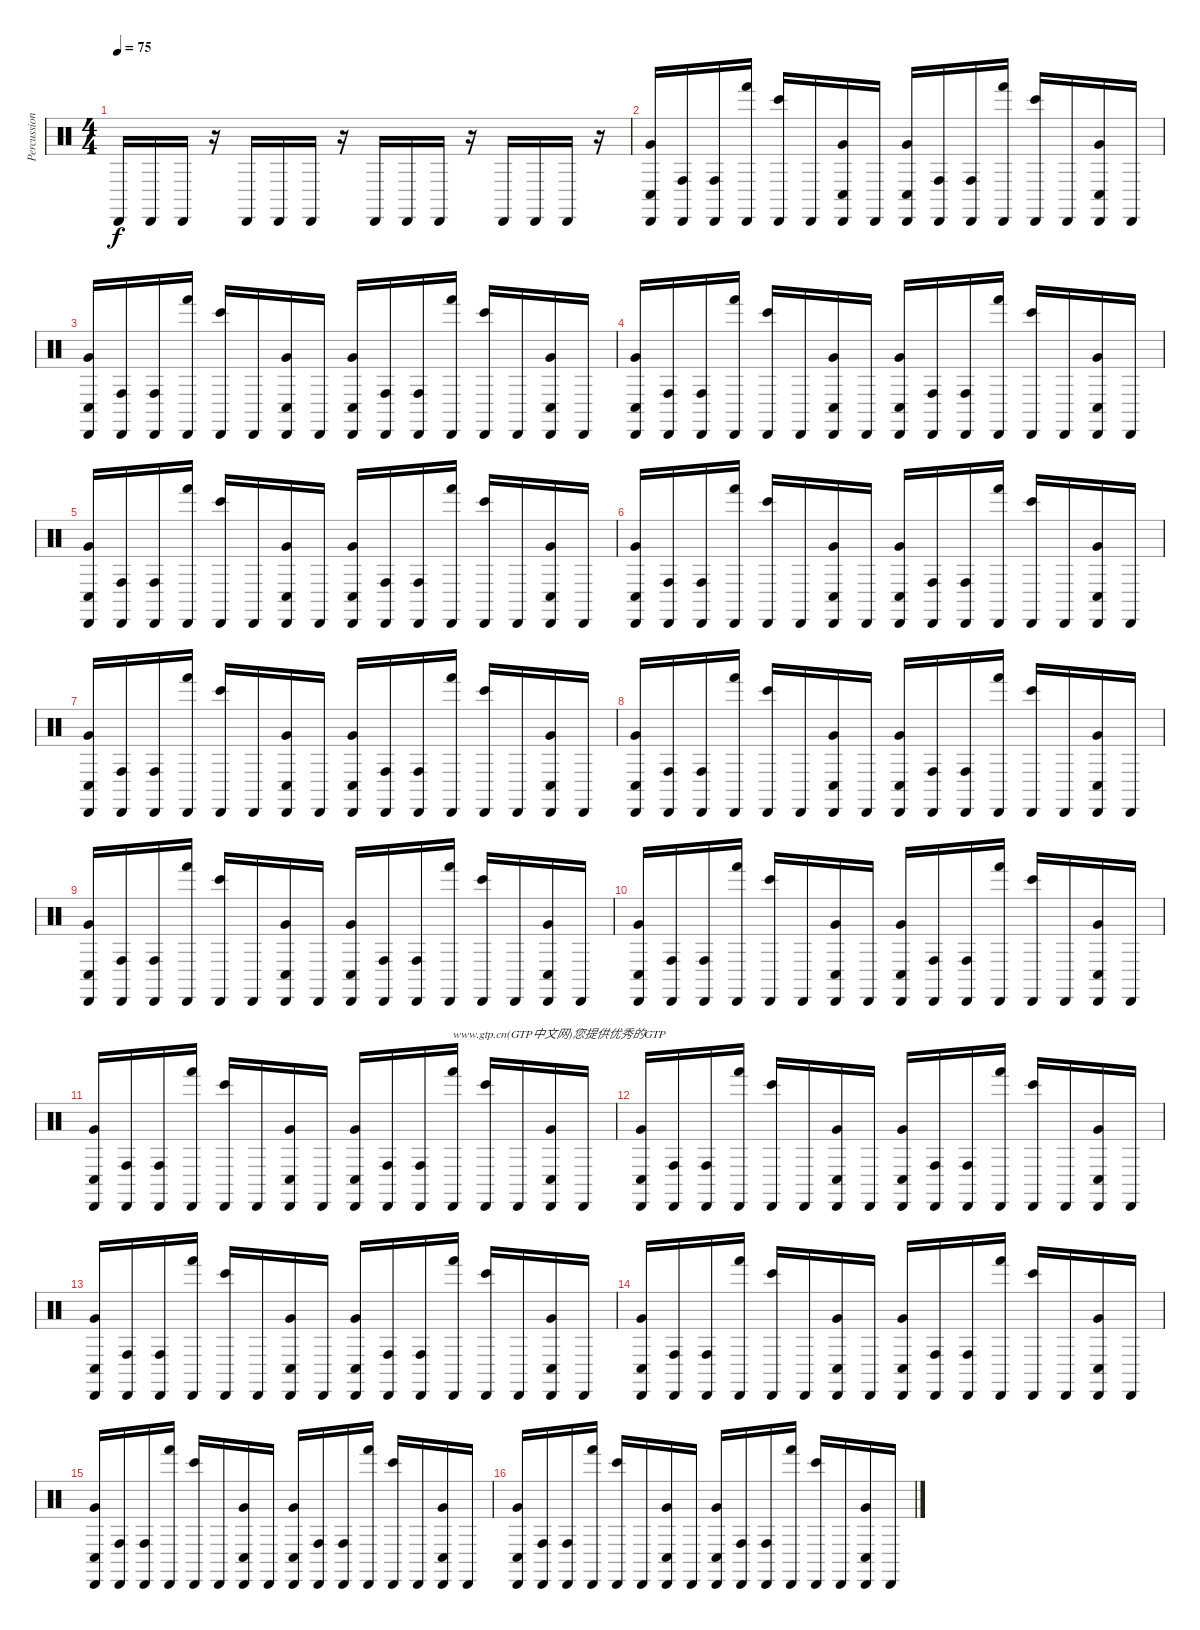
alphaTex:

\track ("Percussions" "Percussion") {instrument percussion}
\staff {score}
\articulation defaults
\ts (4 4)
\tempo 75
\clef neutral
\ks c "Cabasa (hit)".16{dy f} "Cabasa (hit)".16 "Cabasa (hit)".16
r.16 "Cabasa (hit)".16 "Cabasa (hit)".16 "Cabasa (hit)".16 r.16 "Cabasa (hit)".16 "Cabasa (hit)".16 "Cabasa (hit)".16 r.16 "Cabasa (hit)".16 "Cabasa (hit)".16 "Cabasa (hit)".16 r.16 |
("Conga low (hit)" "Very Low Tom (hit)" "Cabasa (hit)").16 ("Conga high (hit)" "Cabasa (hit)").16 ("Conga high (hit)" "Cabasa (hit)").16 ("Hand (hit)" "Cabasa (hit)").16 ("Bongo High (hit)" "Cabasa (hit)").16 "Cabasa (hit)".16 ("Conga low (hit)" "Very Low Tom (hit)" "Cabasa (hit)").16 "Cabasa (hit)".16 ("Conga low (hit)" "Very Low Tom (hit)" "Cabasa (hit)").16 ("Conga high (hit)" "Cabasa (hit)").16 ("Conga high (hit)" "Cabasa (hit)").16 ("Hand (hit)" "Cabasa (hit)").16 ("Bongo High (hit)" "Cabasa (hit)").16 "Cabasa (hit)".16 ("Conga low (hit)" "Very Low Tom (hit)" "Cabasa (hit)").16 "Cabasa (hit)".16 |
("Conga low (hit)" "Very Low Tom (hit)" "Cabasa (hit)").16 ("Conga high (hit)" "Cabasa (hit)").16 ("Conga high (hit)" "Cabasa (hit)").16 ("Hand (hit)" "Cabasa (hit)").16 ("Bongo High (hit)" "Cabasa (hit)").16 "Cabasa (hit)".16 ("Conga low (hit)" "Very Low Tom (hit)" "Cabasa (hit)").16 "Cabasa (hit)".16 ("Conga low (hit)" "Very Low Tom (hit)" "Cabasa (hit)").16 ("Conga high (hit)" "Cabasa (hit)").16 ("Conga high (hit)" "Cabasa (hit)").16 ("Hand (hit)" "Cabasa (hit)").16 ("Bongo High (hit)" "Cabasa (hit)").16 "Cabasa (hit)".16 ("Conga low (hit)" "Very Low Tom (hit)" "Cabasa (hit)").16 "Cabasa (hit)".16 |
("Conga low (hit)" "Very Low Tom (hit)" "Cabasa (hit)").16 ("Conga high (hit)" "Cabasa (hit)").16 ("Conga high (hit)" "Cabasa (hit)").16 ("Hand (hit)" "Cabasa (hit)").16 ("Bongo High (hit)" "Cabasa (hit)").16 "Cabasa (hit)".16 ("Conga low (hit)" "Very Low Tom (hit)" "Cabasa (hit)").16 "Cabasa (hit)".16 ("Conga low (hit)" "Very Low Tom (hit)" "Cabasa (hit)").16 ("Conga high (hit)" "Cabasa (hit)").16 ("Conga high (hit)" "Cabasa (hit)").16 ("Hand (hit)" "Cabasa (hit)").16 ("Bongo High (hit)" "Cabasa (hit)").16 "Cabasa (hit)".16 ("Conga low (hit)" "Very Low Tom (hit)" "Cabasa (hit)").16 "Cabasa (hit)".16 |
("Conga low (hit)" "Very Low Tom (hit)" "Cabasa (hit)").16 ("Conga high (hit)" "Cabasa (hit)").16 ("Conga high (hit)" "Cabasa (hit)").16 ("Hand (hit)" "Cabasa (hit)").16 ("Bongo High (hit)" "Cabasa (hit)").16 "Cabasa (hit)".16 ("Conga low (hit)" "Very Low Tom (hit)" "Cabasa (hit)").16 "Cabasa (hit)".16 ("Conga low (hit)" "Very Low Tom (hit)" "Cabasa (hit)").16 ("Conga high (hit)" "Cabasa (hit)").16 ("Conga high (hit)" "Cabasa (hit)").16 ("Hand (hit)" "Cabasa (hit)").16 ("Bongo High (hit)" "Cabasa (hit)").16 "Cabasa (hit)".16 ("Conga low (hit)" "Very Low Tom (hit)" "Cabasa (hit)").16 "Cabasa (hit)".16 |
("Conga low (hit)" "Very Low Tom (hit)" "Cabasa (hit)").16 ("Conga high (hit)" "Cabasa (hit)").16 ("Conga high (hit)" "Cabasa (hit)").16 ("Hand (hit)" "Cabasa (hit)").16 ("Bongo High (hit)" "Cabasa (hit)").16 "Cabasa (hit)".16 ("Conga low (hit)" "Very Low Tom (hit)" "Cabasa (hit)").16 "Cabasa (hit)".16 ("Conga low (hit)" "Very Low Tom (hit)" "Cabasa (hit)").16 ("Conga high (hit)" "Cabasa (hit)").16 ("Conga high (hit)" "Cabasa (hit)").16 ("Hand (hit)" "Cabasa (hit)").16 ("Bongo High (hit)" "Cabasa (hit)").16 "Cabasa (hit)".16 ("Conga low (hit)" "Very Low Tom (hit)" "Cabasa (hit)").16 "Cabasa (hit)".16 |
("Conga low (hit)" "Very Low Tom (hit)" "Cabasa (hit)").16 ("Conga high (hit)" "Cabasa (hit)").16 ("Conga high (hit)" "Cabasa (hit)").16 ("Hand (hit)" "Cabasa (hit)").16 ("Bongo High (hit)" "Cabasa (hit)").16 "Cabasa (hit)".16 ("Conga low (hit)" "Very Low Tom (hit)" "Cabasa (hit)").16 "Cabasa (hit)".16 ("Conga low (hit)" "Very Low Tom (hit)" "Cabasa (hit)").16 ("Conga high (hit)" "Cabasa (hit)").16 ("Conga high (hit)" "Cabasa (hit)").16 ("Hand (hit)" "Cabasa (hit)").16 ("Bongo High (hit)" "Cabasa (hit)").16 "Cabasa (hit)".16 ("Conga low (hit)" "Very Low Tom (hit)" "Cabasa (hit)").16 "Cabasa (hit)".16 |
("Conga low (hit)" "Very Low Tom (hit)" "Cabasa (hit)").16 ("Conga high (hit)" "Cabasa (hit)").16 ("Conga high (hit)" "Cabasa (hit)").16 ("Hand (hit)" "Cabasa (hit)").16 ("Bongo High (hit)" "Cabasa (hit)").16 "Cabasa (hit)".16 ("Conga low (hit)" "Very Low Tom (hit)" "Cabasa (hit)").16 "Cabasa (hit)".16 ("Conga low (hit)" "Very Low Tom (hit)" "Cabasa (hit)").16 ("Conga high (hit)" "Cabasa (hit)").16 ("Conga high (hit)" "Cabasa (hit)").16 ("Hand (hit)" "Cabasa (hit)").16 ("Bongo High (hit)" "Cabasa (hit)").16 "Cabasa (hit)".16 ("Conga low (hit)" "Very Low Tom (hit)" "Cabasa (hit)").16 "Cabasa (hit)".16 |
("Conga low (hit)" "Very Low Tom (hit)" "Cabasa (hit)").16 ("Conga high (hit)" "Cabasa (hit)").16 ("Conga high (hit)" "Cabasa (hit)").16 ("Hand (hit)" "Cabasa (hit)").16 ("Bongo High (hit)" "Cabasa (hit)").16 "Cabasa (hit)".16 ("Conga low (hit)" "Very Low Tom (hit)" "Cabasa (hit)").16 "Cabasa (hit)".16 ("Conga low (hit)" "Very Low Tom (hit)" "Cabasa (hit)").16 ("Conga high (hit)" "Cabasa (hit)").16 ("Conga high (hit)" "Cabasa (hit)").16 ("Hand (hit)" "Cabasa (hit)").16 ("Bongo High (hit)" "Cabasa (hit)").16 "Cabasa (hit)".16 ("Conga low (hit)" "Very Low Tom (hit)" "Cabasa (hit)").16 "Cabasa (hit)".16 |
("Conga low (hit)" "Very Low Tom (hit)" "Cabasa (hit)").16 ("Conga high (hit)" "Cabasa (hit)").16 ("Conga high (hit)" "Cabasa (hit)").16 ("Hand (hit)" "Cabasa (hit)").16 ("Bongo High (hit)" "Cabasa (hit)").16 "Cabasa (hit)".16 ("Conga low (hit)" "Very Low Tom (hit)" "Cabasa (hit)").16 "Cabasa (hit)".16 ("Conga low (hit)" "Very Low Tom (hit)" "Cabasa (hit)").16 ("Conga high (hit)" "Cabasa (hit)").16 ("Conga high (hit)" "Cabasa (hit)").16 ("Hand (hit)" "Cabasa (hit)").16 ("Bongo High (hit)" "Cabasa (hit)").16 "Cabasa (hit)".16 ("Conga low (hit)" "Very Low Tom (hit)" "Cabasa (hit)").16 "Cabasa (hit)".16 |
("Conga low (hit)" "Very Low Tom (hit)" "Cabasa (hit)").16 ("Conga high (hit)" "Cabasa (hit)").16 ("Conga high (hit)" "Cabasa (hit)").16 ("Hand (hit)" "Cabasa (hit)").16 ("Bongo High (hit)" "Cabasa (hit)").16 "Cabasa (hit)".16 ("Conga low (hit)" "Very Low Tom (hit)" "Cabasa (hit)").16 "Cabasa (hit)".16 ("Conga low (hit)" "Very Low Tom (hit)" "Cabasa (hit)").16 ("Conga high (hit)" "Cabasa (hit)").16 ("Conga high (hit)" "Cabasa (hit)").16 ("Hand (hit)" "Cabasa (hit)").16{txt "www.gtp.cn(GTP中文网)您提供优秀的GTP"} ("Bongo High (hit)" "Cabasa (hit)").16 "Cabasa (hit)".16 ("Conga low (hit)" "Very Low Tom (hit)" "Cabasa (hit)").16 "Cabasa (hit)".16 |
("Conga low (hit)" "Very Low Tom (hit)" "Cabasa (hit)").16 ("Conga high (hit)" "Cabasa (hit)").16 ("Conga high (hit)" "Cabasa (hit)").16 ("Hand (hit)" "Cabasa (hit)").16 ("Bongo High (hit)" "Cabasa (hit)").16 "Cabasa (hit)".16 ("Conga low (hit)" "Very Low Tom (hit)" "Cabasa (hit)").16 "Cabasa (hit)".16 ("Conga low (hit)" "Very Low Tom (hit)" "Cabasa (hit)").16 ("Conga high (hit)" "Cabasa (hit)").16 ("Conga high (hit)" "Cabasa (hit)").16 ("Hand (hit)" "Cabasa (hit)").16 ("Bongo High (hit)" "Cabasa (hit)").16 "Cabasa (hit)".16 ("Conga low (hit)" "Very Low Tom (hit)" "Cabasa (hit)").16 "Cabasa (hit)".16 |
("Conga low (hit)" "Very Low Tom (hit)" "Cabasa (hit)").16 ("Conga high (hit)" "Cabasa (hit)").16 ("Conga high (hit)" "Cabasa (hit)").16 ("Hand (hit)" "Cabasa (hit)").16 ("Bongo High (hit)" "Cabasa (hit)").16 "Cabasa (hit)".16 ("Conga low (hit)" "Very Low Tom (hit)" "Cabasa (hit)").16 "Cabasa (hit)".16 ("Conga low (hit)" "Very Low Tom (hit)" "Cabasa (hit)").16 ("Conga high (hit)" "Cabasa (hit)").16 ("Conga high (hit)" "Cabasa (hit)").16 ("Hand (hit)" "Cabasa (hit)").16 ("Bongo High (hit)" "Cabasa (hit)").16 "Cabasa (hit)".16 ("Conga low (hit)" "Very Low Tom (hit)" "Cabasa (hit)").16 "Cabasa (hit)".16 |
("Conga low (hit)" "Very Low Tom (hit)" "Cabasa (hit)").16 ("Conga high (hit)" "Cabasa (hit)").16 ("Conga high (hit)" "Cabasa (hit)").16 ("Hand (hit)" "Cabasa (hit)").16 ("Bongo High (hit)" "Cabasa (hit)").16 "Cabasa (hit)".16 ("Conga low (hit)" "Very Low Tom (hit)" "Cabasa (hit)").16 "Cabasa (hit)".16 ("Conga low (hit)" "Very Low Tom (hit)" "Cabasa (hit)").16 ("Conga high (hit)" "Cabasa (hit)").16 ("Conga high (hit)" "Cabasa (hit)").16 ("Hand (hit)" "Cabasa (hit)").16 ("Bongo High (hit)" "Cabasa (hit)").16 "Cabasa (hit)".16 ("Conga low (hit)" "Very Low Tom (hit)" "Cabasa (hit)").16 "Cabasa (hit)".16 |
("Conga low (hit)" "Very Low Tom (hit)" "Cabasa (hit)").16 ("Conga high (hit)" "Cabasa (hit)").16 ("Conga high (hit)" "Cabasa (hit)").16 ("Hand (hit)" "Cabasa (hit)").16 ("Bongo High (hit)" "Cabasa (hit)").16 "Cabasa (hit)".16 ("Conga low (hit)" "Very Low Tom (hit)" "Cabasa (hit)").16 "Cabasa (hit)".16 ("Conga low (hit)" "Very Low Tom (hit)" "Cabasa (hit)").16 ("Conga high (hit)" "Cabasa (hit)").16 ("Conga high (hit)" "Cabasa (hit)").16 ("Hand (hit)" "Cabasa (hit)").16 ("Bongo High (hit)" "Cabasa (hit)").16 "Cabasa (hit)".16 ("Conga low (hit)" "Very Low Tom (hit)" "Cabasa (hit)").16 "Cabasa (hit)".16 |
("Conga low (hit)" "Very Low Tom (hit)" "Cabasa (hit)").16 ("Conga high (hit)" "Cabasa (hit)").16 ("Conga high (hit)" "Cabasa (hit)").16 ("Hand (hit)" "Cabasa (hit)").16 ("Bongo High (hit)" "Cabasa (hit)").16 "Cabasa (hit)".16 ("Conga low (hit)" "Very Low Tom (hit)" "Cabasa (hit)").16 "Cabasa (hit)".16 ("Conga low (hit)" "Very Low Tom (hit)" "Cabasa (hit)").16 ("Conga high (hit)" "Cabasa (hit)").16 ("Conga high (hit)" "Cabasa (hit)").16 ("Hand (hit)" "Cabasa (hit)").16 ("Bongo High (hit)" "Cabasa (hit)").16 "Cabasa (hit)".16 ("Conga low (hit)" "Very Low Tom (hit)" "Cabasa (hit)").16 "Cabasa (hit)".16
